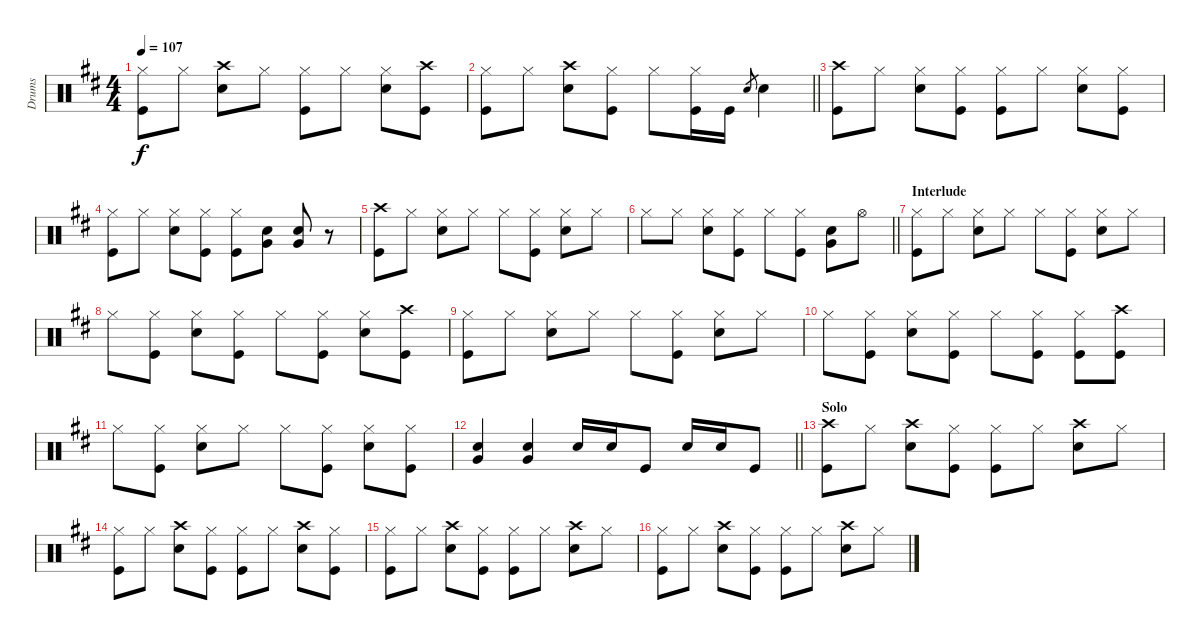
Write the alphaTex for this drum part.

\track ("Drums" "Drums") {instrument percussion}
\staff {score}
\articulation defaults
\ts (4 4)
\tempo 107
\clef neutral
\ks d
("Hi-Hat (closed)" "Kick (hit)").8{dy f} "Hi-Hat (closed)".8 ("Crash high (hit)" "Snare (hit) 2").8 "Hi-Hat (closed)".8 ("Hi-Hat (closed)" "Kick (hit)").8 "Hi-Hat (closed)".8 ("Hi-Hat (closed)" "Snare (hit) 2").8 ("Crash high (hit)" "Kick (hit)").8 |
\barLineRight lightlight
("Hi-Hat (closed)" "Kick (hit)").8 "Hi-Hat (closed)".8 ("Crash high (hit)" "Snare (hit) 2").8 ("Hi-Hat (closed)" "Kick (hit)").8 "Hi-Hat (closed)".8 ("Hi-Hat (closed)" "Kick (hit)").16 "Kick (hit)".16 "Snare (hit) 2".8{gr} "Snare (hit) 2".4 |
("Crash high (hit)" "Kick (hit)").8 "Hi-Hat (closed)".8 ("Hi-Hat (closed)" "Snare (hit) 2").8 ("Hi-Hat (closed)" "Kick (hit)").8 ("Hi-Hat (closed)" "Kick (hit)").8 "Hi-Hat (closed)".8 ("Hi-Hat (closed)" "Snare (hit) 2").8 ("Hi-Hat (closed)" "Kick (hit)").8 |
("Hi-Hat (closed)" "Kick (hit)").8 "Hi-Hat (closed)".8 ("Hi-Hat (closed)" "Snare (hit) 2").8 ("Hi-Hat (closed)" "Kick (hit)").8 ("Hi-Hat (closed)" "Kick (hit)").8 ("Snare (hit) 2" "Very Low Tom (hit)").8 ("Snare (hit) 2" "Very Low Tom (hit)").8 r.8 |
("Crash high (hit)" "Kick (hit)").8 "Hi-Hat (closed)".8 ("Hi-Hat (closed)" "Snare (hit) 2").8 "Hi-Hat (closed)".8 "Hi-Hat (closed)".8 ("Hi-Hat (closed)" "Kick (hit)").8 ("Hi-Hat (closed)" "Snare (hit) 2").8 "Hi-Hat (closed)".8 |
\barLineRight lightlight "Hi-Hat (closed)".8 "Hi-Hat (closed)".8
("Hi-Hat (closed)" "Snare (hit) 2").8 ("Hi-Hat (closed)" "Kick (hit)").8 "Hi-Hat (closed)".8 ("Hi-Hat (closed)" "Kick (hit)").8 ("Snare (hit) 2" "Very Low Tom (hit)").8 "Hi-Hat (open)".8 |
\section ("" "Interlude")
("Hi-Hat (closed)" "Kick (hit)").8 "Hi-Hat (closed)".8 ("Hi-Hat (closed)" "Snare (hit) 2").8 "Hi-Hat (closed)".8 "Hi-Hat (closed)".8 ("Hi-Hat (closed)" "Kick (hit)").8 ("Hi-Hat (closed)" "Snare (hit) 2").8 "Hi-Hat (closed)".8 |
"Hi-Hat (closed)".8 ("Hi-Hat (closed)" "Kick (hit)").8 ("Hi-Hat (closed)" "Snare (hit) 2").8 ("Hi-Hat (closed)" "Kick (hit)").8 "Hi-Hat (closed)".8 ("Hi-Hat (closed)" "Kick (hit)").8 ("Hi-Hat (closed)" "Snare (hit) 2").8 ("Crash high (hit)" "Kick (hit)").8 |
("Hi-Hat (closed)" "Kick (hit)").8 "Hi-Hat (closed)".8 ("Hi-Hat (closed)" "Snare (hit) 2").8 "Hi-Hat (closed)".8 "Hi-Hat (closed)".8 ("Hi-Hat (closed)" "Kick (hit)").8 ("Hi-Hat (closed)" "Snare (hit) 2").8 "Hi-Hat (closed)".8 |
"Hi-Hat (closed)".8 ("Hi-Hat (closed)" "Kick (hit)").8 ("Hi-Hat (closed)" "Snare (hit) 2").8 ("Hi-Hat (closed)" "Kick (hit)").8 "Hi-Hat (closed)".8 ("Hi-Hat (closed)" "Kick (hit)").8 ("Hi-Hat (closed)" "Kick (hit)").8 ("Crash high (hit)" "Kick (hit)").8 |
"Hi-Hat (closed)".8 ("Hi-Hat (closed)" "Kick (hit)").8 ("Hi-Hat (closed)" "Snare (hit) 2").8 "Hi-Hat (closed)".8 "Hi-Hat (closed)".8 ("Hi-Hat (closed)" "Kick (hit)").8 ("Hi-Hat (closed)" "Snare (hit) 2").8 ("Hi-Hat (closed)" "Kick (hit)").8 |
\barLineRight lightlight
("Snare (hit) 2" "Very Low Tom (hit)").4 ("Snare (hit) 2" "Very Low Tom (hit)").4 "Snare (hit) 2".16 "Snare (hit) 2".16 "Kick (hit)".8 "Snare (hit) 2".16 "Snare (hit) 2".16 "Kick (hit)".8 |
\section ("" "Solo")
("Crash high (hit)" "Kick (hit)").8 "Hi-Hat (closed)".8 ("Crash high (hit)" "Snare (hit) 2").8 ("Hi-Hat (closed)" "Kick (hit)").8 ("Hi-Hat (closed)" "Kick (hit)").8 "Hi-Hat (closed)".8 ("Crash high (hit)" "Snare (hit) 2").8 "Hi-Hat (closed)".8 |
("Hi-Hat (closed)" "Kick (hit)").8 "Hi-Hat (closed)".8 ("Crash high (hit)" "Snare (hit) 2").8 ("Hi-Hat (closed)" "Kick (hit)").8 ("Hi-Hat (closed)" "Kick (hit)").8 "Hi-Hat (closed)".8 ("Crash high (hit)" "Snare (hit) 2").8 ("Hi-Hat (closed)" "Kick (hit)").8 |
("Hi-Hat (closed)" "Kick (hit)").8 "Hi-Hat (closed)".8 ("Crash high (hit)" "Snare (hit) 2").8 ("Hi-Hat (closed)" "Kick (hit)").8 ("Hi-Hat (closed)" "Kick (hit)").8 "Hi-Hat (closed)".8 ("Crash high (hit)" "Snare (hit) 2").8 "Hi-Hat (closed)".8 |
("Hi-Hat (closed)" "Kick (hit)").8 "Hi-Hat (closed)".8 ("Crash high (hit)" "Snare (hit) 2").8 ("Hi-Hat (closed)" "Kick (hit)").8 ("Hi-Hat (closed)" "Kick (hit)").8 "Hi-Hat (closed)".8 ("Crash high (hit)" "Snare (hit) 2").8 "Hi-Hat (closed)".8
